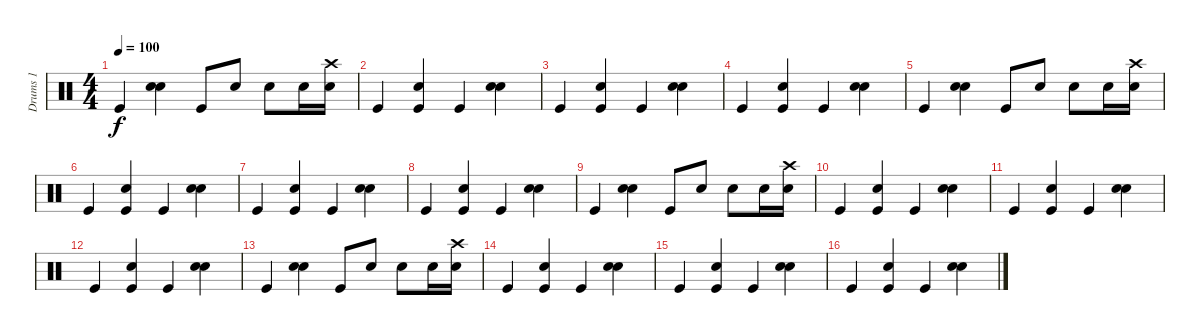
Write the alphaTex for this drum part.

\track ("Drums 1" "Drums 1") {instrument percussion}
\staff {score}
\articulation defaults
\ts (4 4)
\tempo 100
\clef neutral
\ks c "Kick (hit)".4{dy f}
("Electric Snare (hit)" "Snare (hit) 2").4 "Kick (hit)".8 "Electric Snare (hit)".8 "Electric Snare (hit)".8 "Electric Snare (hit)".16 ("Electric Snare (hit)" "Crash high (hit)").16 |
"Kick (hit)".4 ("Electric Snare (hit)" "Kick (hit)").4 "Kick (hit)".4 ("Electric Snare (hit)" "Snare (hit) 2").4 |
"Kick (hit)".4 ("Electric Snare (hit)" "Kick (hit)").4 "Kick (hit)".4 ("Electric Snare (hit)" "Snare (hit) 2").4 |
"Kick (hit)".4 ("Electric Snare (hit)" "Kick (hit)").4 "Kick (hit)".4 ("Electric Snare (hit)" "Snare (hit) 2").4 |
"Kick (hit)".4 ("Electric Snare (hit)" "Snare (hit) 2").4 "Kick (hit)".8 "Electric Snare (hit)".8 "Electric Snare (hit)".8 "Electric Snare (hit)".16 ("Electric Snare (hit)" "Crash high (hit)").16 |
"Kick (hit)".4 ("Electric Snare (hit)" "Kick (hit)").4 "Kick (hit)".4 ("Electric Snare (hit)" "Snare (hit) 2").4 |
"Kick (hit)".4 ("Electric Snare (hit)" "Kick (hit)").4 "Kick (hit)".4 ("Electric Snare (hit)" "Snare (hit) 2").4 |
"Kick (hit)".4 ("Electric Snare (hit)" "Kick (hit)").4 "Kick (hit)".4 ("Electric Snare (hit)" "Snare (hit) 2").4 |
"Kick (hit)".4 ("Electric Snare (hit)" "Snare (hit) 2").4 "Kick (hit)".8 "Electric Snare (hit)".8 "Electric Snare (hit)".8 "Electric Snare (hit)".16 ("Electric Snare (hit)" "Crash high (hit)").16 |
"Kick (hit)".4 ("Electric Snare (hit)" "Kick (hit)").4 "Kick (hit)".4 ("Electric Snare (hit)" "Snare (hit) 2").4 |
"Kick (hit)".4 ("Electric Snare (hit)" "Kick (hit)").4 "Kick (hit)".4 ("Electric Snare (hit)" "Snare (hit) 2").4 |
"Kick (hit)".4 ("Electric Snare (hit)" "Kick (hit)").4 "Kick (hit)".4 ("Electric Snare (hit)" "Snare (hit) 2").4 |
"Kick (hit)".4 ("Electric Snare (hit)" "Snare (hit) 2").4 "Kick (hit)".8 "Electric Snare (hit)".8 "Electric Snare (hit)".8 "Electric Snare (hit)".16 ("Electric Snare (hit)" "Crash high (hit)").16 |
"Kick (hit)".4 ("Electric Snare (hit)" "Kick (hit)").4 "Kick (hit)".4 ("Electric Snare (hit)" "Snare (hit) 2").4 |
"Kick (hit)".4 ("Electric Snare (hit)" "Kick (hit)").4 "Kick (hit)".4 ("Electric Snare (hit)" "Snare (hit) 2").4 |
"Kick (hit)".4 ("Electric Snare (hit)" "Kick (hit)").4 "Kick (hit)".4 ("Electric Snare (hit)" "Snare (hit) 2").4
